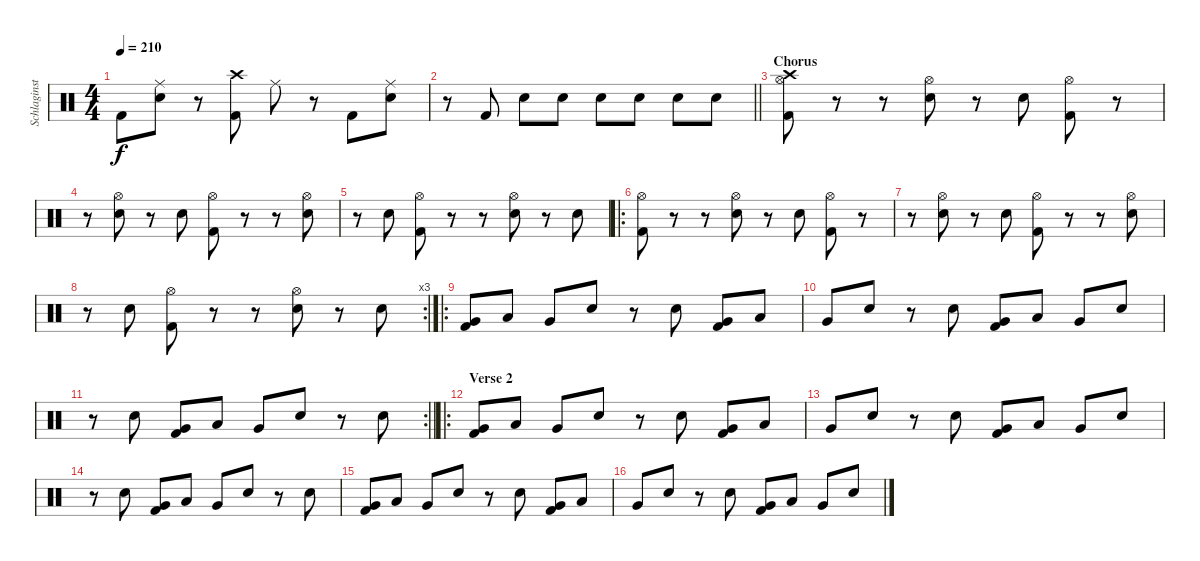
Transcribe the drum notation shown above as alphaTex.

\track ("Schlaginstrumente - Auswahl" "Schlaginst") {instrument percussion}
\staff {score}
\articulation defaults
\ts (4 4)
\tempo 210
\clef neutral
\ks c "Kick (hit) 2".8{dy f}
("Ride (middle)" "Electric Snare (hit)").8 r.8 ("Crash high (hit)" "Kick (hit) 2").8 "Ride (middle)".8 r.8 "Kick (hit) 2".8 ("Ride (middle)" "Electric Snare (hit)").8 |
\barLineRight lightlight
r.8 "Kick (hit) 2".8 "Electric Snare (hit)".8 "Electric Snare (hit)".8 "Electric Snare (hit)".8 "Electric Snare (hit)".8 "Electric Snare (hit)".8 "Electric Snare (hit)".8 |
\section ("" "Chorus")
("Crash high (hit)" "Hi-Hat (open)" "Kick (hit) 2").8 r.8 r.8 ("Hi-Hat (open)" "Electric Snare (hit)").8 r.8 "Electric Snare (hit)".8 ("Hi-Hat (open)" "Kick (hit) 2").8 r.8 |
r.8 ("Hi-Hat (open)" "Electric Snare (hit)").8 r.8 "Electric Snare (hit)".8 ("Hi-Hat (open)" "Kick (hit) 2").8 r.8 r.8 ("Hi-Hat (open)" "Electric Snare (hit)").8 |
r.8 "Electric Snare (hit)".8 ("Hi-Hat (open)" "Kick (hit) 2").8 r.8 r.8 ("Hi-Hat (open)" "Electric Snare (hit)").8 r.8 "Electric Snare (hit)".8 |
\ro
("Hi-Hat (open)" "Kick (hit) 2").8 r.8 r.8 ("Hi-Hat (open)" "Electric Snare (hit)").8 r.8 "Electric Snare (hit)".8 ("Hi-Hat (open)" "Kick (hit) 2").8 r.8 |
r.8 ("Hi-Hat (open)" "Electric Snare (hit)").8 r.8 "Electric Snare (hit)".8 ("Hi-Hat (open)" "Kick (hit) 2").8 r.8 r.8 ("Hi-Hat (open)" "Electric Snare (hit)").8 |
\rc 3
r.8 "Electric Snare (hit)".8 ("Hi-Hat (open)" "Kick (hit) 2").8 r.8 r.8 ("Hi-Hat (open)" "Electric Snare (hit)").8 r.8 "Electric Snare (hit)".8 |
\ro
("Kick (hit) 2" "Very Low Tom (hit)").8 "Low Tom (hit)".8 "Very Low Tom (hit)".8 "Electric Snare (hit)".8 r.8 "Electric Snare (hit)".8 ("Kick (hit) 2" "Very Low Tom (hit)").8 "Low Tom (hit)".8 |
"Very Low Tom (hit)".8 "Electric Snare (hit)".8 r.8 "Electric Snare (hit)".8 ("Kick (hit) 2" "Very Low Tom (hit)").8 "Low Tom (hit)".8 "Very Low Tom (hit)".8 "Electric Snare (hit)".8 |
\rc 2
\barLineRight lightlight
r.8 "Electric Snare (hit)".8 ("Kick (hit) 2" "Very Low Tom (hit)").8 "Low Tom (hit)".8 "Very Low Tom (hit)".8 "Electric Snare (hit)".8 r.8 "Electric Snare (hit)".8 |
\ro
\section ("" "Verse 2")
("Kick (hit) 2" "Very Low Tom (hit)").8 "Low Tom (hit)".8 "Very Low Tom (hit)".8 "Electric Snare (hit)".8 r.8 "Electric Snare (hit)".8 ("Kick (hit) 2" "Very Low Tom (hit)").8 "Low Tom (hit)".8 |
"Very Low Tom (hit)".8 "Electric Snare (hit)".8 r.8 "Electric Snare (hit)".8 ("Kick (hit) 2" "Very Low Tom (hit)").8 "Low Tom (hit)".8 "Very Low Tom (hit)".8 "Electric Snare (hit)".8 |
r.8 "Electric Snare (hit)".8 ("Kick (hit) 2" "Very Low Tom (hit)").8 "Low Tom (hit)".8 "Very Low Tom (hit)".8 "Electric Snare (hit)".8 r.8 "Electric Snare (hit)".8 |
("Kick (hit) 2" "Very Low Tom (hit)").8 "Low Tom (hit)".8 "Very Low Tom (hit)".8 "Electric Snare (hit)".8 r.8 "Electric Snare (hit)".8 ("Kick (hit) 2" "Very Low Tom (hit)").8 "Low Tom (hit)".8 |
"Very Low Tom (hit)".8 "Electric Snare (hit)".8 r.8 "Electric Snare (hit)".8 ("Kick (hit) 2" "Very Low Tom (hit)").8 "Low Tom (hit)".8 "Very Low Tom (hit)".8 "Electric Snare (hit)".8
